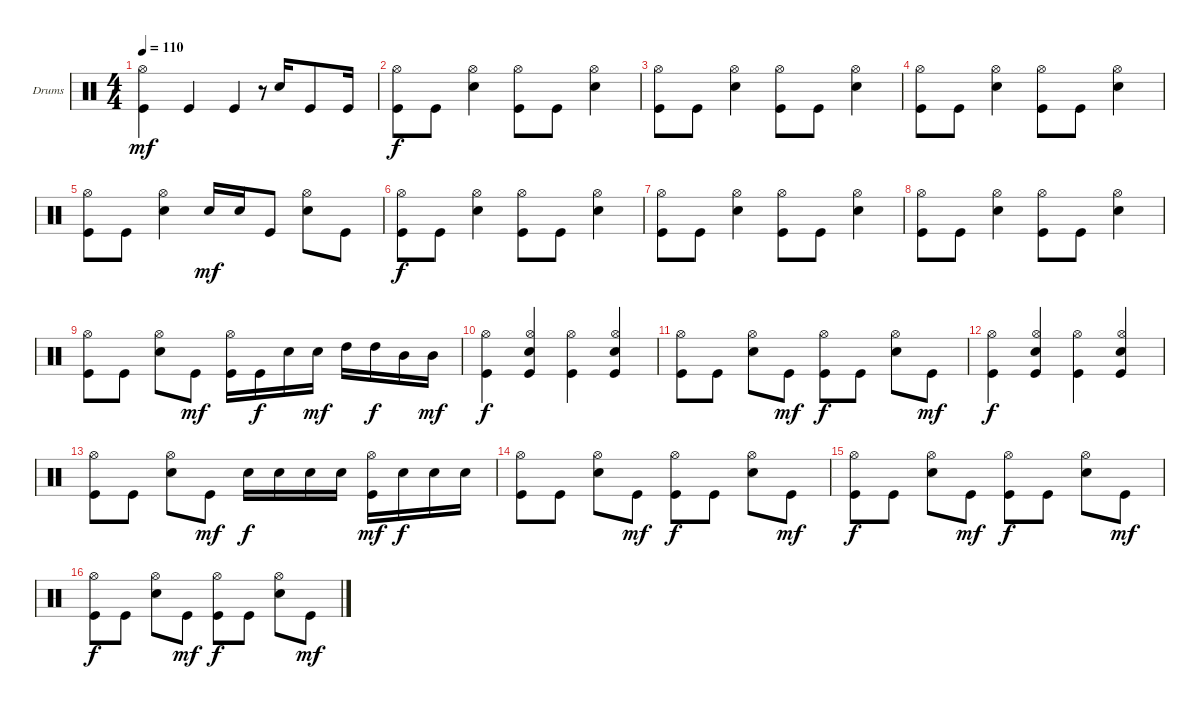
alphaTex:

\bracketExtendMode groupsimilarinstruments
\firstSystemTrackNameOrientation horizontal
\otherSystemsTrackNameOrientation horizontal
\track ("Drumkit" "Drums") {instrument percussion}
\staff {score}
\articulation defaults
\ts (4 4)
\tempo 110
\clef neutral
\ks c
("Kick (hit)" "Hi-Hat (open)").4{dy mf} "Kick (hit)".4 "Kick (hit)".4 r.8{gr} "Snare (hit) 2".16 "Kick (hit)".8 "Kick (hit)".16 |
("Hi-Hat (open)" "Kick (hit)").8{dy f} "Kick (hit)".8 ("Hi-Hat (open)" "Snare (hit) 2").4 ("Hi-Hat (open)" "Kick (hit)").8 "Kick (hit)".8 ("Hi-Hat (open)" "Snare (hit) 2").4 |
("Hi-Hat (open)" "Kick (hit)").8 "Kick (hit)".8 ("Hi-Hat (open)" "Snare (hit) 2").4 ("Hi-Hat (open)" "Kick (hit)").8 "Kick (hit)".8 ("Hi-Hat (open)" "Snare (hit) 2").4 |
("Hi-Hat (open)" "Kick (hit)").8 "Kick (hit)".8 ("Hi-Hat (open)" "Snare (hit) 2").4 ("Hi-Hat (open)" "Kick (hit)").8 "Kick (hit)".8 ("Hi-Hat (open)" "Snare (hit) 2").4 |
("Hi-Hat (open)" "Kick (hit)").8 "Kick (hit)".8 ("Hi-Hat (open)" "Snare (hit) 2").4 "Snare (hit) 2".16{dy mf} "Snare (hit) 2".16 "Kick (hit)".8 ("Hi-Hat (open)" "Snare (hit) 2").8 "Kick (hit)".8 |
("Hi-Hat (open)" "Kick (hit)").8{dy f} "Kick (hit)".8 ("Hi-Hat (open)" "Snare (hit) 2").4 ("Hi-Hat (open)" "Kick (hit)").8 "Kick (hit)".8 ("Hi-Hat (open)" "Snare (hit) 2").4 |
("Hi-Hat (open)" "Kick (hit)").8 "Kick (hit)".8 ("Hi-Hat (open)" "Snare (hit) 2").4 ("Hi-Hat (open)" "Kick (hit)").8 "Kick (hit)".8 ("Hi-Hat (open)" "Snare (hit) 2").4 |
("Hi-Hat (open)" "Kick (hit)").8 "Kick (hit)".8 ("Hi-Hat (open)" "Snare (hit) 2").4 ("Hi-Hat (open)" "Kick (hit)").8 "Kick (hit)".8 ("Hi-Hat (open)" "Snare (hit) 2").4 |
("Hi-Hat (open)" "Kick (hit)").8 "Kick (hit)".8 ("Hi-Hat (open)" "Snare (hit) 2").8 "Kick (hit)".8{dy mf} ("Hi-Hat (open)" "Kick (hit)").16 "Kick (hit)".16{dy f} "Snare (hit) 2".16 "Snare (hit) 2".16{dy mf} "High Tom (hit)".16 "High Tom (hit)".16{dy f} "Mid Tom (hit)".16 "Mid Tom (hit)".16{dy mf} |
("Hi-Hat (open)" "Kick (hit)").4{dy f} ("Hi-Hat (open)" "Snare (hit) 2" "Kick (hit)").4 ("Hi-Hat (open)" "Kick (hit)").4 ("Hi-Hat (open)" "Snare (hit) 2" "Kick (hit)").4 |
("Hi-Hat (open)" "Kick (hit)").8 "Kick (hit)".8 ("Hi-Hat (open)" "Snare (hit) 2").8 "Kick (hit)".8{dy mf} ("Hi-Hat (open)" "Kick (hit)").8{dy f} "Kick (hit)".8 ("Hi-Hat (open)" "Snare (hit) 2").8 "Kick (hit)".8{dy mf} |
("Hi-Hat (open)" "Kick (hit)").4{dy f} ("Hi-Hat (open)" "Snare (hit) 2" "Kick (hit)").4 ("Hi-Hat (open)" "Kick (hit)").4 ("Hi-Hat (open)" "Snare (hit) 2" "Kick (hit)").4 |
("Hi-Hat (open)" "Kick (hit)").8 "Kick (hit)".8 ("Hi-Hat (open)" "Snare (hit) 2").8 "Kick (hit)".8{dy mf} "Snare (hit) 2".16{dy f} "Snare (hit) 2".16 "Snare (hit) 2".16 "Snare (hit) 2".16 ("Hi-Hat (open)" "Kick (hit)").16{dy mf} "Snare (hit) 2".16{dy f} "Snare (hit) 2".16 "Snare (hit) 2".16 |
("Hi-Hat (open)" "Kick (hit)").8 "Kick (hit)".8 ("Hi-Hat (open)" "Snare (hit) 2").8 "Kick (hit)".8{dy mf} ("Hi-Hat (open)" "Kick (hit)").8{dy f} "Kick (hit)".8 ("Hi-Hat (open)" "Snare (hit) 2").8 "Kick (hit)".8{dy mf} |
("Hi-Hat (open)" "Kick (hit)").8{dy f} "Kick (hit)".8 ("Hi-Hat (open)" "Snare (hit) 2").8 "Kick (hit)".8{dy mf} ("Hi-Hat (open)" "Kick (hit)").8{dy f} "Kick (hit)".8 ("Hi-Hat (open)" "Snare (hit) 2").8 "Kick (hit)".8{dy mf} |
("Hi-Hat (open)" "Kick (hit)").8{dy f} "Kick (hit)".8 ("Hi-Hat (open)" "Snare (hit) 2").8 "Kick (hit)".8{dy mf} ("Hi-Hat (open)" "Kick (hit)").8{dy f} "Kick (hit)".8 ("Hi-Hat (open)" "Snare (hit) 2").8 "Kick (hit)".8{dy mf}
